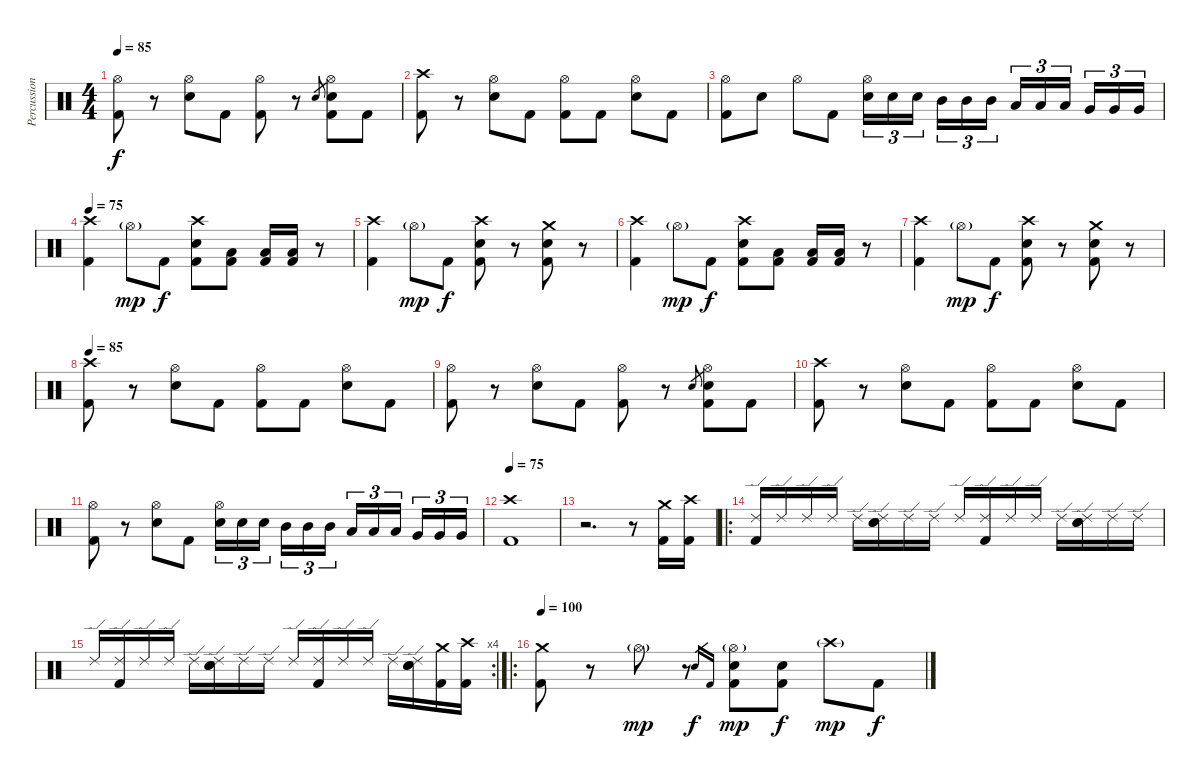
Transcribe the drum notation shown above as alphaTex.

\track ("Percussion" "Percussion") {instrument percussion}
\staff {score}
\articulation defaults
\ts (4 4)
\tempo 85
\clef neutral
\ks c
("Hi-Hat (open)" "Kick (hit) 2").8{dy f} r.8 ("Hi-Hat (open)" "Electric Snare (hit)").8 "Kick (hit) 2".8 ("Hi-Hat (open)" "Kick (hit) 2").8 r.8 "Electric Snare (hit)".8{gr} ("Hi-Hat (open)" "Electric Snare (hit)" "Kick (hit) 2").8 "Kick (hit) 2".8 |
("Crash high (hit)" "Kick (hit) 2").8 r.8 ("Hi-Hat (open)" "Electric Snare (hit)").8 "Kick (hit) 2".8 ("Hi-Hat (open)" "Kick (hit) 2").8 "Kick (hit) 2".8 ("Hi-Hat (open)" "Electric Snare (hit)").8 "Kick (hit) 2".8 |
("Hi-Hat (open)" "Kick (hit) 2").8 "Electric Snare (hit)".8 "Hi-Hat (open)".8 "Kick (hit) 2".8 ("Hi-Hat (open)" "Electric Snare (hit)").16{tu (3 2)} "Electric Snare (hit)".16{tu (3 2)} "Electric Snare (hit)".16{tu (3 2)} "Mid Tom (hit)".16{tu (3 2)} "Mid Tom (hit)".16{tu (3 2)} "Mid Tom (hit)".16{tu (3 2)} "Low Tom (hit)".16{tu (3 2)} "Low Tom (hit)".16{tu (3 2)} "Low Tom (hit)".16{tu (3 2)} "Very Low Tom (hit)".16{tu (3 2)} "Very Low Tom (hit)".16{tu (3 2)} "Very Low Tom (hit)".16{tu (3 2)} |
\tempo 75
("Crash high (hit)" "Kick (hit) 2").4 "Hi-Hat (open)"{g}.8{dy mp} "Kick (hit) 2".8{dy f} ("Crash high (hit)" "Electric Snare (hit)" "Kick (hit) 2").8 ("Low Tom (hit)" "Kick (hit) 2").8 ("Low Tom (hit)" "Kick (hit) 2").16 ("Low Tom (hit)" "Kick (hit) 2").16 r.8 |
("Crash high (hit)" "Kick (hit) 2").4 "Hi-Hat (open)"{g}.8{dy mp} "Kick (hit) 2".8{dy f} ("Crash high (hit)" "Electric Snare (hit)" "Kick (hit) 2").8 r.8 ("Crash medium (hit)" "Electric Snare (hit)" "Kick (hit) 2").8 r.8 |
("Crash high (hit)" "Kick (hit) 2").4 "Hi-Hat (open)"{g}.8{dy mp} "Kick (hit) 2".8{dy f} ("Crash high (hit)" "Electric Snare (hit)" "Kick (hit) 2").8 ("Low Tom (hit)" "Kick (hit) 2").8 ("Low Tom (hit)" "Kick (hit) 2").16 ("Low Tom (hit)" "Kick (hit) 2").16 r.8 |
("Crash high (hit)" "Kick (hit) 2").4 "Hi-Hat (open)"{g}.8{dy mp} "Kick (hit) 2".8{dy f} ("Crash high (hit)" "Electric Snare (hit)" "Kick (hit) 2").8 r.8 ("Crash medium (hit)" "Electric Snare (hit)" "Kick (hit) 2").8 r.8 |
\tempo 85
("Crash high (hit)" "Kick (hit) 2").8 r.8 ("Hi-Hat (open)" "Electric Snare (hit)").8 "Kick (hit) 2".8 ("Hi-Hat (open)" "Kick (hit) 2").8 "Kick (hit) 2".8 ("Hi-Hat (open)" "Electric Snare (hit)").8 "Kick (hit) 2".8 |
("Hi-Hat (open)" "Kick (hit) 2").8 r.8 ("Hi-Hat (open)" "Electric Snare (hit)").8 "Kick (hit) 2".8 ("Hi-Hat (open)" "Kick (hit) 2").8 r.8 "Electric Snare (hit)".8{gr} ("Hi-Hat (open)" "Electric Snare (hit)" "Kick (hit) 2").8 "Kick (hit) 2".8 |
("Crash high (hit)" "Kick (hit) 2").8 r.8 ("Hi-Hat (open)" "Electric Snare (hit)").8 "Kick (hit) 2".8 ("Hi-Hat (open)" "Kick (hit) 2").8 "Kick (hit) 2".8 ("Hi-Hat (open)" "Electric Snare (hit)").8 "Kick (hit) 2".8 |
("Hi-Hat (open)" "Kick (hit) 2").8 r.8 ("Hi-Hat (open)" "Electric Snare (hit)").8 "Kick (hit) 2".8 ("Hi-Hat (open)" "Electric Snare (hit)").16{tu (3 2)} "Electric Snare (hit)".16{tu (3 2)} "Electric Snare (hit)".16{tu (3 2)} "Mid Tom (hit)".16{tu (3 2)} "Mid Tom (hit)".16{tu (3 2)} "Mid Tom (hit)".16{tu (3 2)} "Low Tom (hit)".16{tu (3 2)} "Low Tom (hit)".16{tu (3 2)} "Low Tom (hit)".16{tu (3 2)} "Very Low Tom (hit)".16{tu (3 2)} "Very Low Tom (hit)".16{tu (3 2)} "Very Low Tom (hit)".16{tu (3 2)} |
\tempo 75
("Crash high (hit)" "Kick (hit) 2").1 |
r.2{d} r.8 ("Crash medium (hit)" "Kick (hit) 2").16 ("Crash high (hit)" "Kick (hit) 2").16 |
\ro
("Ride (edge) 2" "Kick (hit) 2").16 "Ride (edge) 2".16 "Ride (edge) 2".16 "Ride (edge) 2".16 "Ride (edge) 2".16 ("Ride (edge) 2" "Electric Snare (hit)" "Electric Snare (hit)").16 "Ride (edge) 2".16 "Ride (edge) 2".16 "Ride (edge) 2".16 ("Ride (edge) 2" "Kick (hit) 2").16 "Ride (edge) 2".16 "Ride (edge) 2".16 "Ride (edge) 2".16 ("Ride (edge) 2" "Electric Snare (hit)" "Electric Snare (hit)").16 "Ride (edge) 2".16 "Ride (edge) 2".16 |
\rc 4 "Ride (edge) 2".16
("Ride (edge) 2" "Kick (hit) 2").16 "Ride (edge) 2".16 "Ride (edge) 2".16 "Ride (edge) 2".16 ("Ride (edge) 2" "Electric Snare (hit)" "Electric Snare (hit)").16 "Ride (edge) 2".16 "Ride (edge) 2".16 "Ride (edge) 2".16 ("Ride (edge) 2" "Kick (hit) 2").16 "Ride (edge) 2".16 "Ride (edge) 2".16 "Ride (edge) 2".16 ("Ride (edge) 2" "Electric Snare (hit)" "Electric Snare (hit)").16 ("Crash medium (hit)" "Kick (hit) 2").16 ("Crash high (hit)" "Kick (hit) 2").16 |
\ro
\tempo 100
("Crash medium (hit)" "Kick (hit) 2").8 r.8 "Hi-Hat (open)"{g}.8{dy mp} r.8 "Electric Snare (hit)".16{gr dy f} "Kick (hit) 2".16{gr} ("Hi-Hat (open)"{g} "Electric Snare (hit)" "Kick (hit) 2").8{dy mp} ("Electric Snare (hit)" "Kick (hit) 2").8{dy f} "Crash high (hit)"{g}.8{dy mp} "Kick (hit) 2".8{dy f}
